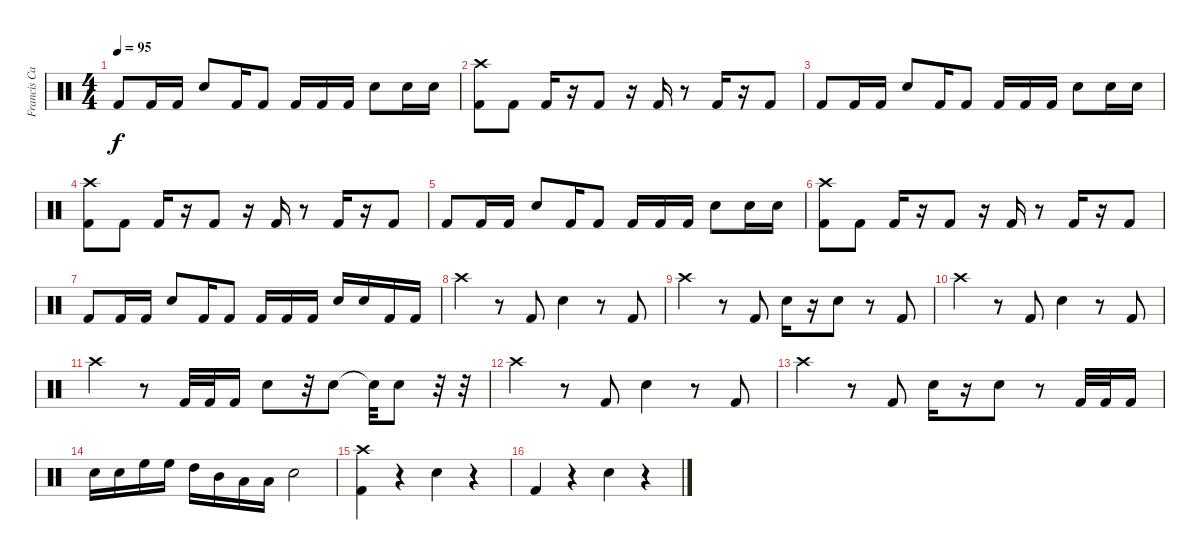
\track ("Francis Cassol" "Francis Ca") {instrument percussion}
\staff {score}
\articulation defaults
\ts (4 4)
\tempo 95
\clef neutral
\ks c "Kick (hit) 2".8{dy f} "Kick (hit) 2".16 "Kick (hit) 2".16 "Electric Snare (hit)".8 "Kick (hit) 2".16 "Kick (hit) 2".8 "Kick (hit) 2".16 "Kick (hit) 2".16 "Kick (hit) 2".16 "Electric Snare (hit)".8 "Electric Snare (hit)".16 "Electric Snare (hit)".16
|
("Crash high (hit)" "Kick (hit) 2").8 "Kick (hit) 2".8 "Kick (hit) 2".16 r.16 "Kick (hit) 2".8 r.16 "Kick (hit) 2".16 r.8 "Kick (hit) 2".16 r.16 "Kick (hit) 2".8 |
"Kick (hit) 2".8 "Kick (hit) 2".16 "Kick (hit) 2".16 "Electric Snare (hit)".8 "Kick (hit) 2".16 "Kick (hit) 2".8 "Kick (hit) 2".16 "Kick (hit) 2".16 "Kick (hit) 2".16 "Electric Snare (hit)".8 "Electric Snare (hit)".16 "Electric Snare (hit)".16 |
("Crash high (hit)" "Kick (hit) 2").8 "Kick (hit) 2".8 "Kick (hit) 2".16 r.16 "Kick (hit) 2".8 r.16 "Kick (hit) 2".16 r.8 "Kick (hit) 2".16 r.16 "Kick (hit) 2".8 |
"Kick (hit) 2".8 "Kick (hit) 2".16 "Kick (hit) 2".16 "Electric Snare (hit)".8 "Kick (hit) 2".16 "Kick (hit) 2".8 "Kick (hit) 2".16 "Kick (hit) 2".16 "Kick (hit) 2".16 "Electric Snare (hit)".8 "Electric Snare (hit)".16 "Electric Snare (hit)".16 |
("Crash high (hit)" "Kick (hit) 2").8 "Kick (hit) 2".8 "Kick (hit) 2".16 r.16 "Kick (hit) 2".8 r.16 "Kick (hit) 2".16 r.8 "Kick (hit) 2".16 r.16 "Kick (hit) 2".8 |
"Kick (hit) 2".8 "Kick (hit) 2".16 "Kick (hit) 2".16 "Electric Snare (hit)".8 "Kick (hit) 2".16 "Kick (hit) 2".8 "Kick (hit) 2".16 "Kick (hit) 2".16 "Kick (hit) 2".16 "Electric Snare (hit)".16 "Electric Snare (hit)".16 "Kick (hit) 2".16 "Kick (hit) 2".16 |
"Crash high (hit)".4 r.8 "Kick (hit) 2".8 "Electric Snare (hit)".4 r.8 "Kick (hit) 2".8 |
"Crash high (hit)".4 r.8 "Kick (hit) 2".8 "Electric Snare (hit)".16 r.16 "Electric Snare (hit)".8 r.8 "Kick (hit) 2".8 |
"Crash high (hit)".4 r.8 "Kick (hit) 2".8 "Electric Snare (hit)".4 r.8 "Kick (hit) 2".8 |
"Crash high (hit)".4 r.8 "Kick (hit) 2".32 "Kick (hit) 2".32 "Kick (hit) 2".16 "Electric Snare (hit)".8 r.32 "Electric Snare (hit)".8 "Snare (hit)"{t}.32 "Electric Snare (hit)".8 r.32 r.32 |
"Crash high (hit)".4 r.8 "Kick (hit) 2".8 "Electric Snare (hit)".4 r.8 "Kick (hit) 2".8 |
"Crash high (hit)".4 r.8 "Kick (hit) 2".8 "Electric Snare (hit)".16 r.16 "Electric Snare (hit)".8 r.8 "Kick (hit) 2".32 "Kick (hit) 2".32 "Kick (hit) 2".16 |
"Electric Snare (hit)".16 "Electric Snare (hit)".16 "High Floor Tom (hit)".16 "High Floor Tom (hit)".16 "High Tom (hit)".16 "Mid Tom (hit)".16 "Low Tom (hit)".16 "Low Tom (hit)".16 "Electric Snare (hit)".2 |
("Crash high (hit)" "Kick (hit) 2").4 r.4 "Electric Snare (hit)".4 r.4 |
"Kick (hit) 2".4 r.4 "Electric Snare (hit)".4 r.4
